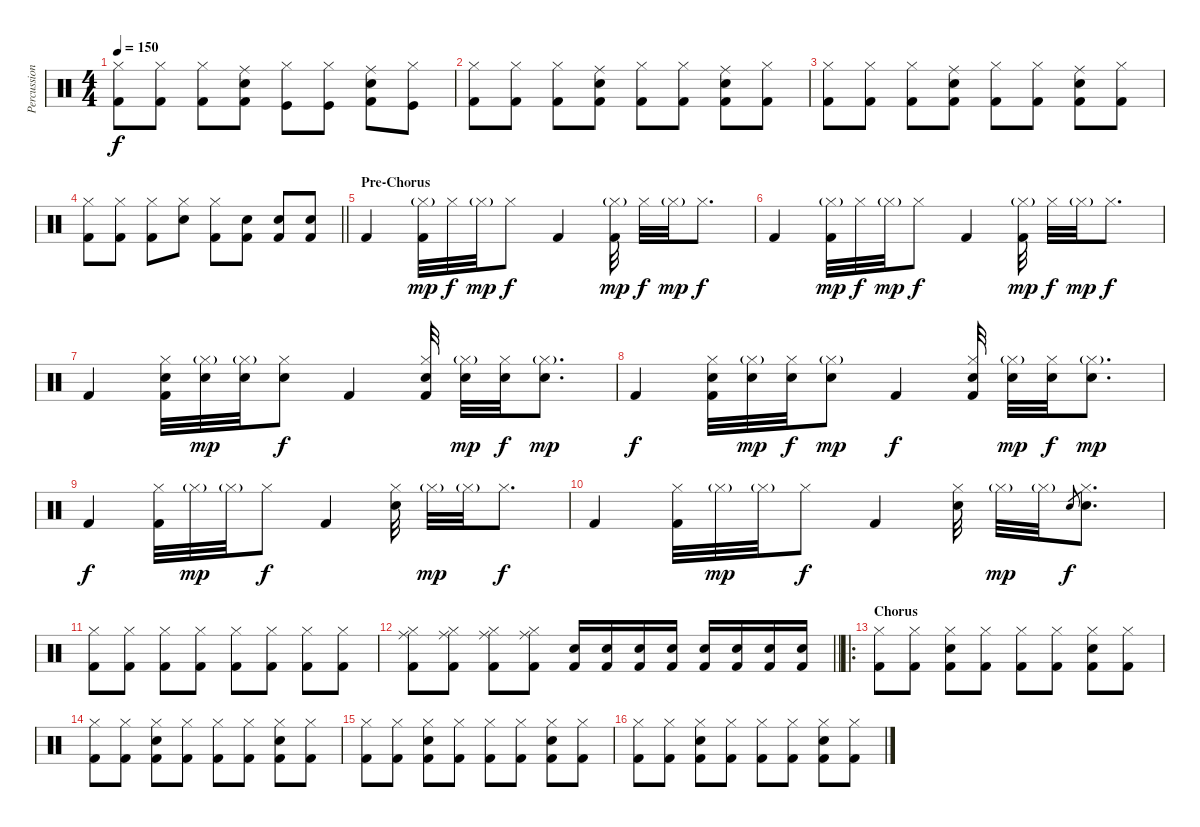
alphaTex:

\track ("Percussion" "Percussion") {instrument percussion}
\staff {score}
\articulation defaults
\ts (4 4)
\tempo 150
\clef neutral
\ks c
("Kick (hit) 2" "Hi-Hat (closed)").8{dy f} ("Kick (hit) 2" "Hi-Hat (closed)").8 ("Kick (hit) 2" "Hi-Hat (closed)").8 ("Kick (hit) 2" "Ride (middle)" "Snare (hit) 2").8 ("Hi-Hat (closed)" "Kick (hit)").8 ("Hi-Hat (closed)" "Kick (hit)").8 ("Kick (hit) 2" "Ride (middle)" "Snare (hit) 2").8 ("Hi-Hat (closed)" "Kick (hit)").8 |
("Kick (hit) 2" "Hi-Hat (closed)").8 ("Kick (hit) 2" "Hi-Hat (closed)").8 ("Kick (hit) 2" "Hi-Hat (closed)").8 ("Kick (hit) 2" "Snare (hit) 2" "Ride (middle)").8 ("Kick (hit) 2" "Hi-Hat (closed)").8 ("Kick (hit) 2" "Hi-Hat (closed)").8 ("Kick (hit) 2" "Snare (hit) 2" "Ride (middle)").8 ("Kick (hit) 2" "Hi-Hat (closed)").8 |
("Kick (hit) 2" "Hi-Hat (closed)").8 ("Kick (hit) 2" "Hi-Hat (closed)").8 ("Kick (hit) 2" "Hi-Hat (closed)").8 ("Kick (hit) 2" "Snare (hit) 2" "Ride (middle)").8 ("Kick (hit) 2" "Hi-Hat (closed)").8 ("Kick (hit) 2" "Hi-Hat (closed)").8 ("Kick (hit) 2" "Snare (hit) 2" "Ride (middle)").8 ("Kick (hit) 2" "Hi-Hat (closed)").8 |
\barLineRight lightlight
("Kick (hit) 2" "Hi-Hat (closed)").8 ("Kick (hit) 2" "Hi-Hat (closed)").8 ("Kick (hit) 2" "Hi-Hat (closed)").8 ("Hi-Hat (closed)" "Snare (hit) 2").8 ("Kick (hit) 2" "Hi-Hat (closed)").8 ("Kick (hit) 2" "Snare (hit) 2").8 ("Kick (hit) 2" "Snare (hit) 2").8 ("Kick (hit) 2" "Snare (hit) 2").8 |
\section ("" "Pre-Chorus")
"Kick (hit) 2".4 ("Hi-Hat (closed)"{g} "Kick (hit) 2").32{dy mp} "Hi-Hat (closed)".32{dy f} "Hi-Hat (closed)"{g}.32{dy mp} "Hi-Hat (closed)".8{dy f} "Kick (hit) 2".4 ("Hi-Hat (closed)"{g} "Kick (hit) 2").32{dy mp} "Hi-Hat (closed)".32{dy f} "Hi-Hat (closed)"{g}.32{dy mp} "Hi-Hat (closed)".8{d dy f} |
"Kick (hit) 2".4 ("Hi-Hat (closed)"{g} "Kick (hit) 2").32{dy mp} "Hi-Hat (closed)".32{dy f} "Hi-Hat (closed)"{g}.32{dy mp} "Hi-Hat (closed)".8{dy f} "Kick (hit) 2".4 ("Hi-Hat (closed)"{g} "Kick (hit) 2").32{dy mp} "Hi-Hat (closed)".32{dy f} "Hi-Hat (closed)"{g}.32{dy mp} "Hi-Hat (closed)".8{d dy f} |
"Kick (hit) 2".4 ("Hi-Hat (closed)" "Snare (hit) 2" "Kick (hit) 2").32 ("Hi-Hat (closed)"{g} "Snare (hit) 2").32{dy mp} ("Hi-Hat (closed)"{g} "Snare (hit) 2").32 ("Hi-Hat (closed)" "Snare (hit) 2").8{dy f} "Kick (hit) 2".4 ("Hi-Hat (closed)" "Snare (hit) 2" "Kick (hit) 2").32 ("Hi-Hat (closed)"{g} "Snare (hit) 2").32{dy mp} ("Hi-Hat (closed)" "Snare (hit) 2").32{dy f} ("Hi-Hat (closed)"{g} "Snare (hit) 2").8{d dy mp} |
"Kick (hit) 2".4{dy f} ("Hi-Hat (closed)" "Kick (hit) 2" "Snare (hit) 2").32 ("Hi-Hat (closed)"{g} "Snare (hit) 2").32{dy mp} ("Hi-Hat (closed)" "Snare (hit) 2").32{dy f} ("Hi-Hat (closed)"{g} "Snare (hit) 2").8{dy mp} "Kick (hit) 2".4{dy f} ("Hi-Hat (closed)" "Kick (hit) 2" "Snare (hit) 2").32 ("Hi-Hat (closed)"{g} "Snare (hit) 2").32{dy mp} ("Hi-Hat (closed)" "Snare (hit) 2").32{dy f} ("Hi-Hat (closed)"{g} "Snare (hit) 2").8{d dy mp} |
"Kick (hit) 2".4{dy f} ("Hi-Hat (closed)" "Kick (hit) 2").32 "Hi-Hat (closed)"{g}.32{dy mp} "Hi-Hat (closed)"{g}.32 "Hi-Hat (closed)".8{dy f} "Kick (hit) 2".4 ("Hi-Hat (closed)" "Snare (hit) 2").32 "Hi-Hat (closed)"{g}.32{dy mp} "Hi-Hat (closed)"{g}.32 "Hi-Hat (closed)".8{d dy f} |
"Kick (hit) 2".4 ("Hi-Hat (closed)" "Kick (hit) 2").32 "Hi-Hat (closed)"{g}.32{dy mp} "Hi-Hat (closed)"{g}.32 "Hi-Hat (closed)".8{dy f} "Kick (hit) 2".4 ("Hi-Hat (closed)" "Snare (hit) 2").32 "Hi-Hat (closed)"{g}.32{dy mp} "Hi-Hat (closed)"{g}.32 "Snare (hit) 2".8{gr dy f} ("Hi-Hat (closed)" "Snare (hit) 2").8{d} |
("Kick (hit) 2" "Hi-Hat (closed)").8 ("Kick (hit) 2" "Hi-Hat (closed)").8 ("Kick (hit) 2" "Hi-Hat (closed)").8 ("Kick (hit) 2" "Hi-Hat (closed)").8 ("Kick (hit) 2" "Hi-Hat (closed)").8 ("Kick (hit) 2" "Hi-Hat (closed)").8 ("Kick (hit) 2" "Hi-Hat (closed)").8 ("Kick (hit) 2" "Hi-Hat (closed)").8 |
\barLineRight lightlight
("Kick (hit) 2" "Ride (middle)" "Hi-Hat (closed)").8 ("Kick (hit) 2" "Ride (middle)" "Hi-Hat (closed)").8 ("Kick (hit) 2" "Ride (middle)" "Hi-Hat (closed)").8 ("Kick (hit) 2" "Ride (middle)" "Hi-Hat (closed)").8 ("Kick (hit) 2" "Snare (hit) 2").16 ("Kick (hit) 2" "Snare (hit) 2").16 ("Kick (hit) 2" "Snare (hit) 2").16 ("Kick (hit) 2" "Snare (hit) 2").16 ("Kick (hit) 2" "Snare (hit) 2").16 ("Kick (hit) 2" "Snare (hit) 2").16 ("Kick (hit) 2" "Snare (hit) 2").16 ("Kick (hit) 2" "Snare (hit) 2").16 |
\ro
\section ("" "Chorus")
("Kick (hit) 2" "Hi-Hat (closed)").8 ("Kick (hit) 2" "Hi-Hat (closed)").8 ("Kick (hit) 2" "Hi-Hat (closed)" "Snare (hit) 2").8 ("Kick (hit) 2" "Hi-Hat (closed)").8 ("Kick (hit) 2" "Hi-Hat (closed)").8 ("Kick (hit) 2" "Hi-Hat (closed)").8 ("Kick (hit) 2" "Hi-Hat (closed)" "Snare (hit) 2").8 ("Kick (hit) 2" "Hi-Hat (closed)").8 |
("Kick (hit) 2" "Hi-Hat (closed)").8 ("Kick (hit) 2" "Hi-Hat (closed)").8 ("Kick (hit) 2" "Hi-Hat (closed)" "Snare (hit) 2").8 ("Kick (hit) 2" "Hi-Hat (closed)").8 ("Kick (hit) 2" "Hi-Hat (closed)").8 ("Kick (hit) 2" "Hi-Hat (closed)").8 ("Kick (hit) 2" "Hi-Hat (closed)" "Snare (hit) 2").8 ("Kick (hit) 2" "Hi-Hat (closed)").8 |
("Kick (hit) 2" "Hi-Hat (closed)").8 ("Kick (hit) 2" "Hi-Hat (closed)").8 ("Kick (hit) 2" "Hi-Hat (closed)" "Snare (hit) 2").8 ("Kick (hit) 2" "Hi-Hat (closed)").8 ("Kick (hit) 2" "Hi-Hat (closed)").8 ("Kick (hit) 2" "Hi-Hat (closed)").8 ("Kick (hit) 2" "Hi-Hat (closed)" "Snare (hit) 2").8 ("Kick (hit) 2" "Hi-Hat (closed)").8 |
("Kick (hit) 2" "Hi-Hat (closed)").8 ("Kick (hit) 2" "Hi-Hat (closed)").8 ("Kick (hit) 2" "Hi-Hat (closed)" "Snare (hit) 2").8 ("Kick (hit) 2" "Hi-Hat (closed)").8 ("Kick (hit) 2" "Hi-Hat (closed)").8 ("Kick (hit) 2" "Hi-Hat (closed)").8 ("Kick (hit) 2" "Hi-Hat (closed)" "Snare (hit) 2").8 ("Kick (hit) 2" "Hi-Hat (closed)").8
